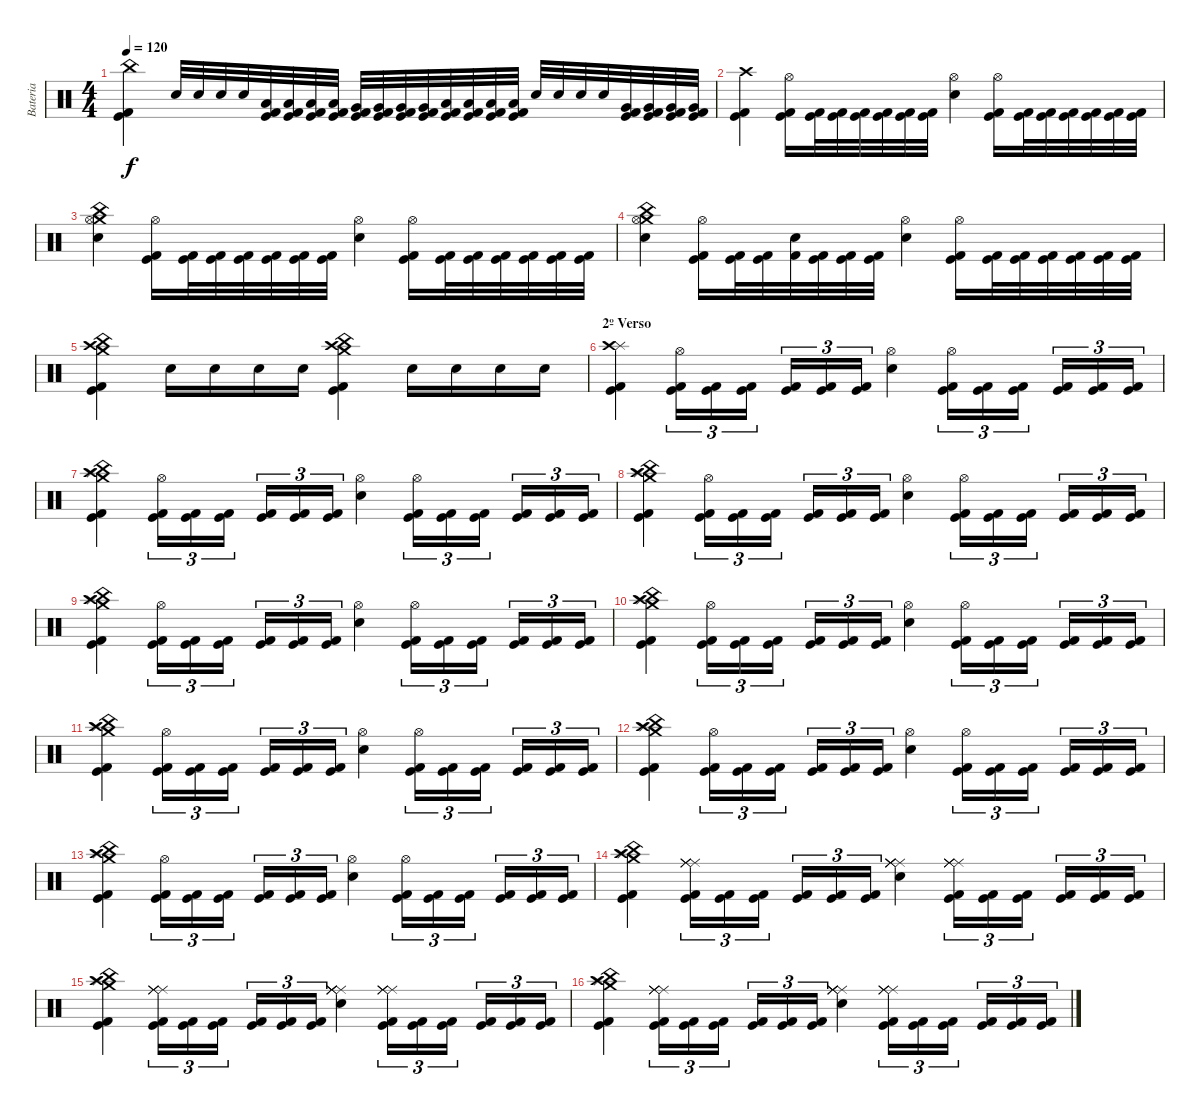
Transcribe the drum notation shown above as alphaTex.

\track ("Bateria" "Bateria") {instrument percussion}
\staff {score}
\articulation defaults
\ts (4 4)
\tempo 120
\clef neutral
\ks c
("China (hit)" "Kick (hit) 2" "Kick (hit)").4{dy f} "Electric Snare (hit)".32 "Electric Snare (hit)".32 "Electric Snare (hit)".32 "Electric Snare (hit)".32 ("Kick (hit) 2" "Kick (hit)" "Low Floor Tom (hit)").32 ("Kick (hit) 2" "Kick (hit)" "Low Floor Tom (hit)").32 ("Kick (hit) 2" "Kick (hit)" "Low Floor Tom (hit)").32 ("Kick (hit) 2" "Kick (hit)" "Low Floor Tom (hit)").32 ("Very Low Tom (hit)" "Kick (hit)" "Kick (hit) 2").32 ("Very Low Tom (hit)" "Kick (hit)" "Kick (hit) 2").32 ("Very Low Tom (hit)" "Kick (hit)" "Kick (hit) 2").32 ("Very Low Tom (hit)" "Kick (hit)" "Kick (hit) 2").32 ("Low Floor Tom (hit)" "Kick (hit)" "Kick (hit) 2").32 ("Low Floor Tom (hit)" "Kick (hit)" "Kick (hit) 2").32 ("Low Floor Tom (hit)" "Kick (hit)" "Kick (hit) 2").32 ("Low Floor Tom (hit)" "Kick (hit)" "Kick (hit) 2").32 "Electric Snare (hit)".32 "Electric Snare (hit)".32 "Electric Snare (hit)".32 "Electric Snare (hit)".32 ("Very Low Tom (hit)" "Kick (hit)" "Kick (hit) 2").32 ("Very Low Tom (hit)" "Kick (hit)" "Kick (hit) 2").32 ("Very Low Tom (hit)" "Kick (hit)" "Kick (hit) 2").32 ("Very Low Tom (hit)" "Kick (hit)" "Kick (hit) 2").32 |
("Crash high (hit)" "Kick (hit)" "Kick (hit) 2").4 ("Hi-Hat (open)" "Kick (hit) 2" "Kick (hit)").16 ("Kick (hit) 2" "Kick (hit)").32 ("Kick (hit) 2" "Kick (hit)").32 ("Kick (hit) 2" "Kick (hit)").32 ("Kick (hit) 2" "Kick (hit)").32 ("Kick (hit) 2" "Kick (hit)").32 ("Kick (hit) 2" "Kick (hit)").32 ("Hi-Hat (open)" "Electric Snare (hit)").4 ("Hi-Hat (open)" "Kick (hit)" "Kick (hit) 2").16 ("Kick (hit)" "Kick (hit) 2").32 ("Kick (hit)" "Kick (hit) 2").32 ("Kick (hit)" "Kick (hit) 2").32 ("Kick (hit)" "Kick (hit) 2").32 ("Kick (hit)" "Kick (hit) 2").32 ("Kick (hit)" "Kick (hit) 2").32 |
("China (hit)" "Crash medium (hit)" "Electric Snare (hit)" "Hi-Hat (open)").4 ("Hi-Hat (open)" "Kick (hit) 2" "Kick (hit)").16 ("Kick (hit) 2" "Kick (hit)").32 ("Kick (hit) 2" "Kick (hit)").32 ("Kick (hit) 2" "Kick (hit)").32 ("Kick (hit) 2" "Kick (hit)").32 ("Kick (hit) 2" "Kick (hit)").32 ("Kick (hit) 2" "Kick (hit)").32 ("Electric Snare (hit)" "Hi-Hat (open)").4 ("Hi-Hat (open)" "Kick (hit) 2" "Kick (hit)").16 ("Kick (hit)" "Kick (hit) 2").32 ("Kick (hit)" "Kick (hit) 2").32 ("Kick (hit)" "Kick (hit) 2").32 ("Kick (hit)" "Kick (hit) 2").32 ("Kick (hit)" "Kick (hit) 2").32 ("Kick (hit)" "Kick (hit) 2").32 |
("China (hit)" "Crash medium (hit)" "Electric Snare (hit)" "Hi-Hat (open)").4 ("Hi-Hat (open)" "Kick (hit)" "Kick (hit) 2").16 ("Kick (hit)" "Kick (hit) 2").32 ("Kick (hit)" "Kick (hit) 2").32 ("Snare (hit)" "Kick (hit) 2").32 ("Kick (hit)" "Kick (hit) 2").32 ("Kick (hit)" "Kick (hit) 2").32 ("Kick (hit)" "Kick (hit) 2").32 ("Electric Snare (hit)" "Hi-Hat (open)").4 ("Hi-Hat (open)" "Kick (hit)" "Kick (hit) 2").16 ("Kick (hit)" "Kick (hit) 2").32 ("Kick (hit)" "Kick (hit) 2").32 ("Kick (hit)" "Kick (hit) 2").32 ("Kick (hit)" "Kick (hit) 2").32 ("Kick (hit)" "Kick (hit) 2").32 ("Kick (hit)" "Kick (hit) 2").32 |
("Crash high (hit)" "Crash medium (hit)" "China (hit)" "Kick (hit)" "Kick (hit) 2").4 "Electric Snare (hit)".16 "Electric Snare (hit)".16 "Electric Snare (hit)".16 "Electric Snare (hit)".16 ("Crash high (hit)" "Crash medium (hit)" "China (hit)" "Kick (hit) 2" "Kick (hit)").4 "Electric Snare (hit)".16 "Electric Snare (hit)".16 "Electric Snare (hit)".16 "Electric Snare (hit)".16 |
\section ("" "2º Verso")
("Splash (hit)" "Crash high (hit)" "Kick (hit)" "Kick (hit) 2").4 ("Kick (hit) 2" "Kick (hit)" "Hi-Hat (open)").16{tu (3 2)} ("Kick (hit)" "Kick (hit) 2").16{tu (3 2)} ("Kick (hit)" "Kick (hit) 2").16{tu (3 2)} ("Kick (hit)" "Kick (hit) 2").16{tu (3 2)} ("Kick (hit)" "Kick (hit) 2").16{tu (3 2)} ("Kick (hit)" "Kick (hit) 2").16{tu (3 2)} ("Electric Snare (hit)" "Hi-Hat (open)").4 ("Kick (hit) 2" "Kick (hit)" "Hi-Hat (open)").16{tu (3 2)} ("Kick (hit) 2" "Kick (hit)").16{tu (3 2)} ("Kick (hit) 2" "Kick (hit)").16{tu (3 2)} ("Kick (hit) 2" "Kick (hit)").16{tu (3 2)} ("Kick (hit) 2" "Kick (hit)").16{tu (3 2)} ("Kick (hit) 2" "Kick (hit)").16{tu (3 2)} |
("Crash medium (hit)" "China (hit)" "Splash (hit)" "Crash high (hit)" "Kick (hit)" "Kick (hit) 2").4 ("Kick (hit) 2" "Kick (hit)" "Hi-Hat (open)").16{tu (3 2)} ("Kick (hit)" "Kick (hit) 2").16{tu (3 2)} ("Kick (hit)" "Kick (hit) 2").16{tu (3 2)} ("Kick (hit)" "Kick (hit) 2").16{tu (3 2)} ("Kick (hit)" "Kick (hit) 2").16{tu (3 2)} ("Kick (hit)" "Kick (hit) 2").16{tu (3 2)} ("Electric Snare (hit)" "Hi-Hat (open)").4 ("Kick (hit) 2" "Kick (hit)" "Hi-Hat (open)").16{tu (3 2)} ("Kick (hit) 2" "Kick (hit)").16{tu (3 2)} ("Kick (hit) 2" "Kick (hit)").16{tu (3 2)} ("Kick (hit) 2" "Kick (hit)").16{tu (3 2)} ("Kick (hit) 2" "Kick (hit)").16{tu (3 2)} ("Kick (hit) 2" "Kick (hit)").16{tu (3 2)} |
("Crash medium (hit)" "China (hit)" "Splash (hit)" "Crash high (hit)" "Kick (hit)" "Kick (hit) 2").4 ("Kick (hit) 2" "Kick (hit)" "Hi-Hat (open)").16{tu (3 2)} ("Kick (hit)" "Kick (hit) 2").16{tu (3 2)} ("Kick (hit)" "Kick (hit) 2").16{tu (3 2)} ("Kick (hit)" "Kick (hit) 2").16{tu (3 2)} ("Kick (hit)" "Kick (hit) 2").16{tu (3 2)} ("Kick (hit)" "Kick (hit) 2").16{tu (3 2)} ("Electric Snare (hit)" "Hi-Hat (open)").4 ("Kick (hit) 2" "Kick (hit)" "Hi-Hat (open)").16{tu (3 2)} ("Kick (hit) 2" "Kick (hit)").16{tu (3 2)} ("Kick (hit) 2" "Kick (hit)").16{tu (3 2)} ("Kick (hit) 2" "Kick (hit)").16{tu (3 2)} ("Kick (hit) 2" "Kick (hit)").16{tu (3 2)} ("Kick (hit) 2" "Kick (hit)").16{tu (3 2)} |
("Crash medium (hit)" "China (hit)" "Splash (hit)" "Crash high (hit)" "Kick (hit)" "Kick (hit) 2").4 ("Kick (hit) 2" "Kick (hit)" "Hi-Hat (open)").16{tu (3 2)} ("Kick (hit)" "Kick (hit) 2").16{tu (3 2)} ("Kick (hit)" "Kick (hit) 2").16{tu (3 2)} ("Kick (hit)" "Kick (hit) 2").16{tu (3 2)} ("Kick (hit)" "Kick (hit) 2").16{tu (3 2)} ("Kick (hit)" "Kick (hit) 2").16{tu (3 2)} ("Electric Snare (hit)" "Hi-Hat (open)").4 ("Kick (hit) 2" "Kick (hit)" "Hi-Hat (open)").16{tu (3 2)} ("Kick (hit) 2" "Kick (hit)").16{tu (3 2)} ("Kick (hit) 2" "Kick (hit)").16{tu (3 2)} ("Kick (hit) 2" "Kick (hit)").16{tu (3 2)} ("Kick (hit) 2" "Kick (hit)").16{tu (3 2)} ("Kick (hit) 2" "Kick (hit)").16{tu (3 2)} |
("Crash medium (hit)" "China (hit)" "Splash (hit)" "Crash high (hit)" "Kick (hit)" "Kick (hit) 2").4 ("Kick (hit) 2" "Kick (hit)" "Hi-Hat (open)").16{tu (3 2)} ("Kick (hit)" "Kick (hit) 2").16{tu (3 2)} ("Kick (hit)" "Kick (hit) 2").16{tu (3 2)} ("Kick (hit)" "Kick (hit) 2").16{tu (3 2)} ("Kick (hit)" "Kick (hit) 2").16{tu (3 2)} ("Kick (hit)" "Kick (hit) 2").16{tu (3 2)} ("Electric Snare (hit)" "Hi-Hat (open)").4 ("Kick (hit) 2" "Kick (hit)" "Hi-Hat (open)").16{tu (3 2)} ("Kick (hit) 2" "Kick (hit)").16{tu (3 2)} ("Kick (hit) 2" "Kick (hit)").16{tu (3 2)} ("Kick (hit) 2" "Kick (hit)").16{tu (3 2)} ("Kick (hit) 2" "Kick (hit)").16{tu (3 2)} ("Kick (hit) 2" "Kick (hit)").16{tu (3 2)} |
("Crash medium (hit)" "China (hit)" "Splash (hit)" "Crash high (hit)" "Kick (hit)" "Kick (hit) 2").4 ("Kick (hit) 2" "Kick (hit)" "Hi-Hat (open)").16{tu (3 2)} ("Kick (hit)" "Kick (hit) 2").16{tu (3 2)} ("Kick (hit)" "Kick (hit) 2").16{tu (3 2)} ("Kick (hit)" "Kick (hit) 2").16{tu (3 2)} ("Kick (hit)" "Kick (hit) 2").16{tu (3 2)} ("Kick (hit)" "Kick (hit) 2").16{tu (3 2)} ("Electric Snare (hit)" "Hi-Hat (open)").4 ("Kick (hit) 2" "Kick (hit)" "Hi-Hat (open)").16{tu (3 2)} ("Kick (hit) 2" "Kick (hit)").16{tu (3 2)} ("Kick (hit) 2" "Kick (hit)").16{tu (3 2)} ("Kick (hit) 2" "Kick (hit)").16{tu (3 2)} ("Kick (hit) 2" "Kick (hit)").16{tu (3 2)} ("Kick (hit) 2" "Kick (hit)").16{tu (3 2)} |
("Crash medium (hit)" "China (hit)" "Splash (hit)" "Crash high (hit)" "Kick (hit)" "Kick (hit) 2").4 ("Kick (hit) 2" "Kick (hit)" "Hi-Hat (open)").16{tu (3 2)} ("Kick (hit)" "Kick (hit) 2").16{tu (3 2)} ("Kick (hit)" "Kick (hit) 2").16{tu (3 2)} ("Kick (hit)" "Kick (hit) 2").16{tu (3 2)} ("Kick (hit)" "Kick (hit) 2").16{tu (3 2)} ("Kick (hit)" "Kick (hit) 2").16{tu (3 2)} ("Electric Snare (hit)" "Hi-Hat (open)").4 ("Kick (hit) 2" "Kick (hit)" "Hi-Hat (open)").16{tu (3 2)} ("Kick (hit) 2" "Kick (hit)").16{tu (3 2)} ("Kick (hit) 2" "Kick (hit)").16{tu (3 2)} ("Kick (hit) 2" "Kick (hit)").16{tu (3 2)} ("Kick (hit) 2" "Kick (hit)").16{tu (3 2)} ("Kick (hit) 2" "Kick (hit)").16{tu (3 2)} |
("Crash medium (hit)" "China (hit)" "Splash (hit)" "Crash high (hit)" "Kick (hit)" "Kick (hit) 2").4 ("Kick (hit) 2" "Kick (hit)" "Hi-Hat (open)").16{tu (3 2)} ("Kick (hit)" "Kick (hit) 2").16{tu (3 2)} ("Kick (hit)" "Kick (hit) 2").16{tu (3 2)} ("Kick (hit)" "Kick (hit) 2").16{tu (3 2)} ("Kick (hit)" "Kick (hit) 2").16{tu (3 2)} ("Kick (hit)" "Kick (hit) 2").16{tu (3 2)} ("Electric Snare (hit)" "Hi-Hat (open)").4 ("Kick (hit) 2" "Kick (hit)" "Hi-Hat (open)").16{tu (3 2)} ("Kick (hit) 2" "Kick (hit)").16{tu (3 2)} ("Kick (hit) 2" "Kick (hit)").16{tu (3 2)} ("Kick (hit) 2" "Kick (hit)").16{tu (3 2)} ("Kick (hit) 2" "Kick (hit)").16{tu (3 2)} ("Kick (hit) 2" "Kick (hit)").16{tu (3 2)} |
("Crash medium (hit)" "China (hit)" "Splash (hit)" "Crash high (hit)" "Kick (hit)" "Kick (hit) 2").4 ("Ride (middle)" "Ride (middle)" "Ride (middle)" "Kick (hit) 2" "Kick (hit)" "Ride (middle)").16{tu (3 2)} ("Kick (hit)" "Kick (hit) 2").16{tu (3 2)} ("Kick (hit)" "Kick (hit) 2").16{tu (3 2)} ("Kick (hit)" "Kick (hit) 2").16{tu (3 2)} ("Kick (hit)" "Kick (hit) 2").16{tu (3 2)} ("Kick (hit)" "Kick (hit) 2").16{tu (3 2)} ("Ride (middle)" "Ride (middle)" "Ride (middle)" "Electric Snare (hit)" "Ride (middle)" "Ride (middle)").4 ("Ride (middle)" "Ride (middle)" "Ride (middle)" "Kick (hit) 2" "Kick (hit)" "Ride (middle)").16{tu (3 2)} ("Kick (hit) 2" "Kick (hit)").16{tu (3 2)} ("Kick (hit) 2" "Kick (hit)").16{tu (3 2)} ("Kick (hit) 2" "Kick (hit)").16{tu (3 2)} ("Kick (hit) 2" "Kick (hit)").16{tu (3 2)} ("Kick (hit) 2" "Kick (hit)").16{tu (3 2)} |
("Crash medium (hit)" "China (hit)" "Splash (hit)" "Crash high (hit)" "Kick (hit)" "Kick (hit) 2").4 ("Ride (middle)" "Ride (middle)" "Ride (middle)" "Kick (hit) 2" "Kick (hit)" "Ride (middle)").16{tu (3 2)} ("Kick (hit)" "Kick (hit) 2").16{tu (3 2)} ("Kick (hit)" "Kick (hit) 2").16{tu (3 2)} ("Kick (hit)" "Kick (hit) 2").16{tu (3 2)} ("Kick (hit)" "Kick (hit) 2").16{tu (3 2)} ("Kick (hit)" "Kick (hit) 2").16{tu (3 2)} ("Ride (middle)" "Ride (middle)" "Ride (middle)" "Electric Snare (hit)" "Ride (middle)" "Ride (middle)").4 ("Ride (middle)" "Ride (middle)" "Ride (middle)" "Kick (hit) 2" "Kick (hit)" "Ride (middle)").16{tu (3 2)} ("Kick (hit) 2" "Kick (hit)").16{tu (3 2)} ("Kick (hit) 2" "Kick (hit)").16{tu (3 2)} ("Kick (hit) 2" "Kick (hit)").16{tu (3 2)} ("Kick (hit) 2" "Kick (hit)").16{tu (3 2)} ("Kick (hit) 2" "Kick (hit)").16{tu (3 2)} |
("Crash medium (hit)" "China (hit)" "Splash (hit)" "Crash high (hit)" "Kick (hit)" "Kick (hit) 2").4 ("Ride (middle)" "Ride (middle)" "Ride (middle)" "Kick (hit) 2" "Kick (hit)" "Ride (middle)").16{tu (3 2)} ("Kick (hit)" "Kick (hit) 2").16{tu (3 2)} ("Kick (hit)" "Kick (hit) 2").16{tu (3 2)} ("Kick (hit)" "Kick (hit) 2").16{tu (3 2)} ("Kick (hit)" "Kick (hit) 2").16{tu (3 2)} ("Kick (hit)" "Kick (hit) 2").16{tu (3 2)} ("Ride (middle)" "Ride (middle)" "Ride (middle)" "Electric Snare (hit)" "Ride (middle)" "Ride (middle)").4 ("Ride (middle)" "Ride (middle)" "Ride (middle)" "Kick (hit) 2" "Kick (hit)" "Ride (middle)").16{tu (3 2)} ("Kick (hit) 2" "Kick (hit)").16{tu (3 2)} ("Kick (hit) 2" "Kick (hit)").16{tu (3 2)} ("Kick (hit) 2" "Kick (hit)").16{tu (3 2)} ("Kick (hit) 2" "Kick (hit)").16{tu (3 2)} ("Kick (hit) 2" "Kick (hit)").16{tu (3 2)}
